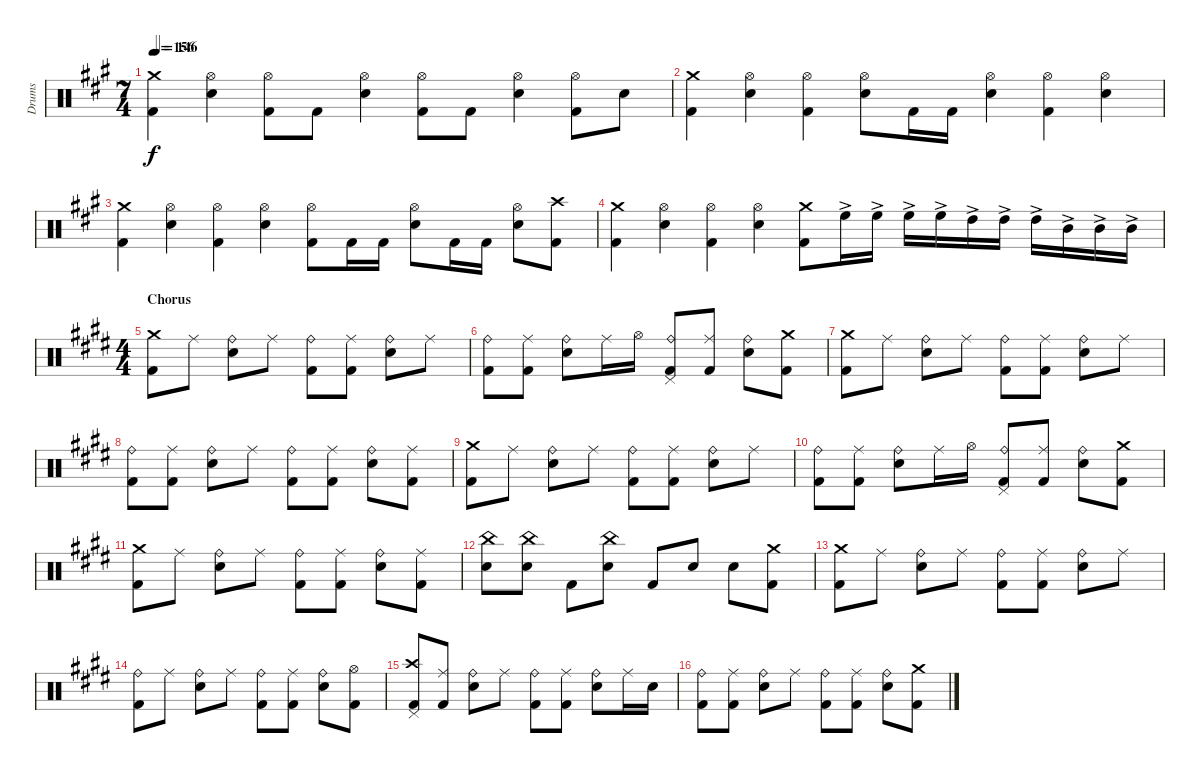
\defaultSystemsLayout 4
\bracketExtendMode groupsimilarinstruments
\otherSystemsTrackNameOrientation horizontal
\track ("Drumkit" "Drums") {multiBarRest instrument percussion}
\staff {score}
\articulation defaults
\ts (7 4)
\beaming (8 2 2 2 2 2 2 2)
\tempo 156
\tempo (146 0.00625)
\clef neutral
\ks a
("Crash medium (hit)"{acc forcenatural} "Kick (hit) 2"{acc forcenatural}).4{dy f} ("Hi-Hat (open)"{acc forcenatural} "Snare (hit) 2"{acc forcenatural}).4 ("Hi-Hat (open)"{acc forcenatural} "Kick (hit) 2"{acc forcenatural}).8 "Kick (hit) 2"{acc forcenatural}.8 ("Hi-Hat (open)"{acc forcenatural} "Snare (hit) 2"{acc forcenatural}).4 ("Hi-Hat (open)"{acc forcenatural} "Kick (hit) 2"{acc forcenatural}).8 "Kick (hit) 2"{acc forcenatural}.8 ("Hi-Hat (open)"{acc forcenatural} "Snare (hit) 2"{acc forcenatural}).4 ("Hi-Hat (open)"{acc forcenatural} "Kick (hit) 2"{acc forcenatural}).8 "Snare (hit) 2"{acc forcenatural}.8 |
("Crash medium (hit)"{acc forcenatural} "Kick (hit) 2"{acc forcenatural}).4 ("Hi-Hat (open)"{acc forcenatural} "Snare (hit) 2"{acc forcenatural}).4 ("Hi-Hat (open)"{acc forcenatural} "Kick (hit) 2"{acc forcenatural}).4 ("Hi-Hat (open)"{acc forcenatural} "Snare (hit) 2"{acc forcenatural}).8 "Kick (hit) 2"{acc forcenatural}.16 "Kick (hit) 2"{acc forcenatural}.16 ("Hi-Hat (open)"{acc forcenatural} "Snare (hit) 2"{acc forcenatural}).4 ("Hi-Hat (open)"{acc forcenatural} "Kick (hit) 2"{acc forcenatural}).4 ("Hi-Hat (open)"{acc forcenatural} "Snare (hit) 2"{acc forcenatural}).4 |
("Crash medium (hit)"{acc forcenatural} "Kick (hit) 2"{acc forcenatural}).4 ("Hi-Hat (open)"{acc forcenatural} "Snare (hit) 2"{acc forcenatural}).4 ("Hi-Hat (open)"{acc forcenatural} "Kick (hit) 2"{acc forcenatural}).4 ("Hi-Hat (open)"{acc forcenatural} "Snare (hit) 2"{acc forcenatural}).4 ("Hi-Hat (open)"{acc forcenatural} "Kick (hit) 2"{acc forcenatural}).8 "Kick (hit) 2"{acc forcenatural}.16 "Kick (hit) 2"{acc forcenatural}.16 ("Hi-Hat (open)"{acc forcenatural} "Snare (hit) 2"{acc forcenatural}).8 "Kick (hit) 2"{acc forcenatural}.16 "Kick (hit) 2"{acc forcenatural}.16 ("Hi-Hat (open)"{acc forcenatural} "Snare (hit) 2"{acc forcenatural}).8 ("Kick (hit) 2"{acc forcenatural} "Crash high (hit)"{acc forcenatural}).8 |
("Crash medium (hit)"{acc forcenatural} "Kick (hit) 2"{acc forcenatural}).4 ("Hi-Hat (open)"{acc forcenatural} "Snare (hit) 2"{acc forcenatural}).4 ("Hi-Hat (open)"{acc forcenatural} "Kick (hit) 2"{acc forcenatural}).4 ("Hi-Hat (open)"{acc forcenatural} "Snare (hit) 2"{acc forcenatural}).4 ("Crash medium (hit)"{acc forcenatural} "Kick (hit) 2"{acc forcenatural}).8 "High Floor Tom (hit)"{ac acc forcenatural}.16 "High Floor Tom (hit)"{ac acc forcenatural}.16 "High Floor Tom (hit)"{ac acc forcenatural}.16 "High Floor Tom (hit)"{ac acc forcenatural}.16 "High Tom (hit)"{ac acc forcenatural}.16 "High Tom (hit)"{ac acc forcenatural}.16 "High Tom (hit)"{ac acc forcenatural}.16 "Mid Tom (hit)"{ac acc forcenatural}.16 "Mid Tom (hit)"{ac acc forcenatural}.16 "Mid Tom (hit)"{ac acc forcenatural}.16 |
\ts (4 4)
\beaming (8 2 2 2 2 2 2 2)
\section ("" "Chorus")
\ks e
("Crash medium (hit)"{acc forcenatural} "Kick (hit) 2"{acc forcenatural}).8 "Ride (middle)"{acc forcenatural}.8 ("Ride (bell)"{acc forcenatural} "Snare (hit) 2"{acc forcenatural}).8 "Ride (middle)"{acc forcenatural}.8 ("Ride (bell)"{acc forcenatural} "Kick (hit) 2"{acc forcenatural}).8 ("Kick (hit) 2"{acc forcenatural} "Ride (middle)"{acc forcenatural}).8 ("Ride (bell)"{acc forcenatural} "Snare (hit) 2"{acc forcenatural}).8 "Ride (middle)"{acc forcenatural}.8 |
("Ride (bell)"{acc forcenatural} "Kick (hit) 2"{acc forcenatural}).8 ("Kick (hit) 2"{acc forcenatural} "Ride (middle)"{acc forcenatural}).8 ("Ride (bell)"{acc forcenatural} "Snare (hit) 2"{acc forcenatural}).8 "Ride (middle)"{acc forcenatural}.16 "Hi-Hat (open)"{acc forcenatural}.16 ("Ride (bell)"{acc forcenatural} "Pedal Hi-Hat (hit)"{acc forcenatural} "Kick (hit) 2"{acc forcenatural}).8 ("Kick (hit) 2"{acc forcenatural} "Ride (middle)"{acc forcenatural}).8 ("Ride (bell)"{acc forcenatural} "Snare (hit) 2"{acc forcenatural}).8 ("Crash medium (hit)"{acc forcenatural} "Kick (hit) 2"{acc forcenatural}).8 |
("Crash medium (hit)"{acc forcenatural} "Kick (hit) 2"{acc forcenatural}).8 "Ride (middle)"{acc forcenatural}.8 ("Ride (bell)"{acc forcenatural} "Snare (hit) 2"{acc forcenatural}).8 "Ride (middle)"{acc forcenatural}.8 ("Ride (bell)"{acc forcenatural} "Kick (hit) 2"{acc forcenatural}).8 ("Kick (hit) 2"{acc forcenatural} "Ride (middle)"{acc forcenatural}).8 ("Ride (bell)"{acc forcenatural} "Snare (hit) 2"{acc forcenatural}).8 "Ride (middle)"{acc forcenatural}.8 |
("Ride (bell)"{acc forcenatural} "Kick (hit) 2"{acc forcenatural}).8 ("Kick (hit) 2"{acc forcenatural} "Ride (middle)"{acc forcenatural}).8 ("Ride (bell)"{acc forcenatural} "Snare (hit) 2"{acc forcenatural}).8 "Ride (middle)"{acc forcenatural}.8 ("Ride (bell)"{acc forcenatural} "Kick (hit) 2"{acc forcenatural}).8 ("Kick (hit) 2"{acc forcenatural} "Ride (middle)"{acc forcenatural}).8 ("Ride (bell)"{acc forcenatural} "Snare (hit) 2"{acc forcenatural}).8 ("Kick (hit) 2"{acc forcenatural} "Ride (middle)"{acc forcenatural}).8 |
("Crash medium (hit)"{acc forcenatural} "Kick (hit) 2"{acc forcenatural}).8 "Ride (middle)"{acc forcenatural}.8 ("Ride (bell)"{acc forcenatural} "Snare (hit) 2"{acc forcenatural}).8 "Ride (middle)"{acc forcenatural}.8 ("Ride (bell)"{acc forcenatural} "Kick (hit) 2"{acc forcenatural}).8 ("Kick (hit) 2"{acc forcenatural} "Ride (middle)"{acc forcenatural}).8 ("Ride (bell)"{acc forcenatural} "Snare (hit) 2"{acc forcenatural}).8 "Ride (middle)"{acc forcenatural}.8 |
("Ride (bell)"{acc forcenatural} "Kick (hit) 2"{acc forcenatural}).8 ("Kick (hit) 2"{acc forcenatural} "Ride (middle)"{acc forcenatural}).8 ("Ride (bell)"{acc forcenatural} "Snare (hit) 2"{acc forcenatural}).8 "Ride (middle)"{acc forcenatural}.16 "Hi-Hat (open)"{acc forcenatural}.16 ("Ride (bell)"{acc forcenatural} "Pedal Hi-Hat (hit)"{acc forcenatural} "Kick (hit) 2"{acc forcenatural}).8 ("Kick (hit) 2"{acc forcenatural} "Ride (middle)"{acc forcenatural}).8 ("Ride (bell)"{acc forcenatural} "Snare (hit) 2"{acc forcenatural}).8 ("Crash medium (hit)"{acc forcenatural} "Kick (hit) 2"{acc forcenatural}).8 |
("Crash medium (hit)"{acc forcenatural} "Kick (hit) 2"{acc forcenatural}).8 "Ride (middle)"{acc forcenatural}.8 ("Ride (bell)"{acc forcenatural} "Snare (hit) 2"{acc forcenatural}).8 "Ride (middle)"{acc forcenatural}.8 ("Ride (bell)"{acc forcenatural} "Kick (hit) 2"{acc forcenatural}).8 ("Kick (hit) 2"{acc forcenatural} "Ride (middle)"{acc forcenatural}).8 ("Ride (bell)"{acc forcenatural} "Snare (hit) 2"{acc forcenatural}).8 ("Kick (hit) 2"{acc forcenatural} "Ride (middle)"{acc forcenatural}).8 |
("Snare (hit) 2"{acc forcenatural} "China (hit)"{acc forcenatural}).8 ("Snare (hit) 2"{acc forcenatural} "China (hit)"{acc forcenatural}).8 "Kick (hit) 2"{acc forcenatural}.8 ("Snare (hit) 2"{acc forcenatural} "China (hit)"{acc forcenatural}).8 "Kick (hit) 2"{acc forcenatural}.8 "Snare (hit) 2"{acc forcenatural}.8 "Snare (hit) 2"{acc forcenatural}.8 ("Crash medium (hit)"{acc forcenatural} "Kick (hit) 2"{acc forcenatural}).8 |
("Crash medium (hit)"{acc forcenatural} "Kick (hit) 2"{acc forcenatural}).8 "Ride (middle)"{acc forcenatural}.8 ("Ride (bell)"{acc forcenatural} "Snare (hit) 2"{acc forcenatural}).8 "Ride (middle)"{acc forcenatural}.8 ("Ride (bell)"{acc forcenatural} "Kick (hit) 2"{acc forcenatural}).8 ("Kick (hit) 2"{acc forcenatural} "Ride (middle)"{acc forcenatural}).8 ("Ride (bell)"{acc forcenatural} "Snare (hit) 2"{acc forcenatural}).8 "Ride (middle)"{acc forcenatural}.8 |
("Ride (bell)"{acc forcenatural} "Kick (hit) 2"{acc forcenatural}).8 "Ride (middle)"{acc forcenatural}.8 ("Ride (bell)"{acc forcenatural} "Snare (hit) 2"{acc forcenatural}).8 "Ride (middle)"{acc forcenatural}.8 ("Ride (bell)"{acc forcenatural} "Kick (hit) 2"{acc forcenatural}).8 ("Kick (hit) 2"{acc forcenatural} "Ride (middle)"{acc forcenatural}).8 ("Ride (bell)"{acc forcenatural} "Snare (hit) 2"{acc forcenatural}).8 ("Kick (hit) 2"{acc forcenatural} "Hi-Hat (open)"{acc forcenatural}).8 |
("Kick (hit) 2"{acc forcenatural} "Crash high (hit)"{acc forcenatural} "Pedal Hi-Hat (hit)"{acc forcenatural}).8 ("Kick (hit) 2"{acc forcenatural} "Ride (middle)"{acc forcenatural}).8 ("Ride (bell)"{acc forcenatural} "Snare (hit) 2"{acc forcenatural}).8 "Ride (middle)"{acc forcenatural}.8 ("Ride (bell)"{acc forcenatural} "Kick (hit) 2"{acc forcenatural}).8 ("Kick (hit) 2"{acc forcenatural} "Ride (middle)"{acc forcenatural}).8 ("Ride (bell)"{acc forcenatural} "Snare (hit) 2"{acc forcenatural}).8 "Ride (middle)"{acc forcenatural}.16 "Snare (hit) 2"{acc forcenatural}.16 |
("Ride (bell)"{acc forcenatural} "Kick (hit) 2"{acc forcenatural}).8 ("Kick (hit) 2"{acc forcenatural} "Ride (middle)"{acc forcenatural}).8 ("Ride (bell)"{acc forcenatural} "Snare (hit) 2"{acc forcenatural}).8 "Ride (middle)"{acc forcenatural}.8 ("Ride (bell)"{acc forcenatural} "Kick (hit) 2"{acc forcenatural}).8 ("Kick (hit) 2"{acc forcenatural} "Ride (middle)"{acc forcenatural}).8 ("Ride (bell)"{acc forcenatural} "Snare (hit) 2"{acc forcenatural}).8 ("Crash medium (hit)"{acc forcenatural} "Kick (hit) 2"{acc forcenatural}).8
